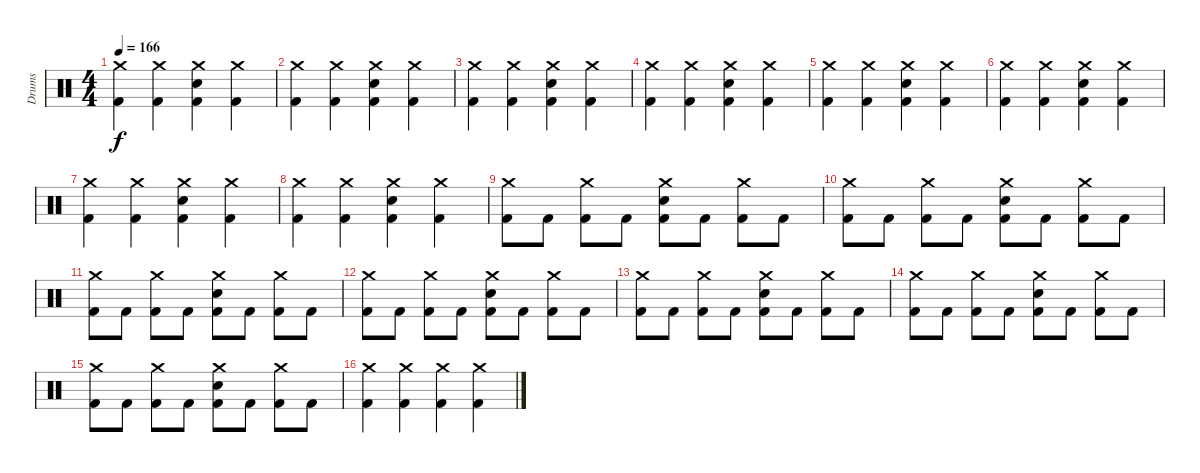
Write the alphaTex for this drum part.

\track ("Drums" "Drums") {instrument percussion}
\staff {score}
\articulation defaults
\ts (4 4)
\tempo 166
\clef neutral
\ks c
("Crash medium (hit)" "Kick (hit) 2").4{dy f} ("Crash medium (hit)" "Kick (hit) 2").4 ("Crash medium (hit)" "Electric Snare (hit)" "Kick (hit) 2").4 ("Crash medium (hit)" "Kick (hit) 2").4 |
("Crash medium (hit)" "Kick (hit) 2").4 ("Crash medium (hit)" "Kick (hit) 2").4 ("Crash medium (hit)" "Electric Snare (hit)" "Kick (hit) 2").4 ("Crash medium (hit)" "Kick (hit) 2").4 |
("Crash medium (hit)" "Kick (hit) 2").4 ("Crash medium (hit)" "Kick (hit) 2").4 ("Crash medium (hit)" "Electric Snare (hit)" "Kick (hit) 2").4 ("Crash medium (hit)" "Kick (hit) 2").4 |
("Crash medium (hit)" "Kick (hit) 2").4 ("Crash medium (hit)" "Kick (hit) 2").4 ("Crash medium (hit)" "Electric Snare (hit)" "Kick (hit) 2").4 ("Crash medium (hit)" "Kick (hit) 2").4 |
("Crash medium (hit)" "Kick (hit) 2").4 ("Crash medium (hit)" "Kick (hit) 2").4 ("Crash medium (hit)" "Electric Snare (hit)" "Kick (hit) 2").4 ("Crash medium (hit)" "Kick (hit) 2").4 |
("Crash medium (hit)" "Kick (hit) 2").4 ("Crash medium (hit)" "Kick (hit) 2").4 ("Crash medium (hit)" "Electric Snare (hit)" "Kick (hit) 2").4 ("Crash medium (hit)" "Kick (hit) 2").4 |
("Crash medium (hit)" "Kick (hit) 2").4 ("Crash medium (hit)" "Kick (hit) 2").4 ("Crash medium (hit)" "Electric Snare (hit)" "Kick (hit) 2").4 ("Crash medium (hit)" "Kick (hit) 2").4 |
("Crash medium (hit)" "Kick (hit) 2").4 ("Crash medium (hit)" "Kick (hit) 2").4 ("Crash medium (hit)" "Electric Snare (hit)" "Kick (hit) 2").4 ("Crash medium (hit)" "Kick (hit) 2").4 |
("Crash medium (hit)" "Kick (hit) 2").8 "Kick (hit) 2".8 ("Crash medium (hit)" "Kick (hit) 2").8 "Kick (hit) 2".8 ("Crash medium (hit)" "Electric Snare (hit)" "Kick (hit) 2").8 "Kick (hit) 2".8 ("Crash medium (hit)" "Kick (hit) 2").8 "Kick (hit) 2".8 |
("Crash medium (hit)" "Kick (hit) 2").8 "Kick (hit) 2".8 ("Crash medium (hit)" "Kick (hit) 2").8 "Kick (hit) 2".8 ("Crash medium (hit)" "Electric Snare (hit)" "Kick (hit) 2").8 "Kick (hit) 2".8 ("Crash medium (hit)" "Kick (hit) 2").8 "Kick (hit) 2".8 |
("Crash medium (hit)" "Kick (hit) 2").8 "Kick (hit) 2".8 ("Crash medium (hit)" "Kick (hit) 2").8 "Kick (hit) 2".8 ("Crash medium (hit)" "Electric Snare (hit)" "Kick (hit) 2").8 "Kick (hit) 2".8 ("Crash medium (hit)" "Kick (hit) 2").8 "Kick (hit) 2".8 |
("Crash medium (hit)" "Kick (hit) 2").8 "Kick (hit) 2".8 ("Crash medium (hit)" "Kick (hit) 2").8 "Kick (hit) 2".8 ("Crash medium (hit)" "Electric Snare (hit)" "Kick (hit) 2").8 "Kick (hit) 2".8 ("Crash medium (hit)" "Kick (hit) 2").8 "Kick (hit) 2".8 |
("Crash medium (hit)" "Kick (hit) 2").8 "Kick (hit) 2".8 ("Crash medium (hit)" "Kick (hit) 2").8 "Kick (hit) 2".8 ("Crash medium (hit)" "Electric Snare (hit)" "Kick (hit) 2").8 "Kick (hit) 2".8 ("Crash medium (hit)" "Kick (hit) 2").8 "Kick (hit) 2".8 |
("Crash medium (hit)" "Kick (hit) 2").8 "Kick (hit) 2".8 ("Crash medium (hit)" "Kick (hit) 2").8 "Kick (hit) 2".8 ("Crash medium (hit)" "Electric Snare (hit)" "Kick (hit) 2").8 "Kick (hit) 2".8 ("Crash medium (hit)" "Kick (hit) 2").8 "Kick (hit) 2".8 |
("Crash medium (hit)" "Kick (hit) 2").8 "Kick (hit) 2".8 ("Crash medium (hit)" "Kick (hit) 2").8 "Kick (hit) 2".8 ("Crash medium (hit)" "Electric Snare (hit)" "Kick (hit) 2").8 "Kick (hit) 2".8 ("Crash medium (hit)" "Kick (hit) 2").8 "Kick (hit) 2".8 |
("Crash medium (hit)" "Kick (hit) 2").4 ("Crash medium (hit)" "Kick (hit) 2").4 ("Crash medium (hit)" "Kick (hit) 2").4 ("Crash medium (hit)" "Kick (hit) 2").4
